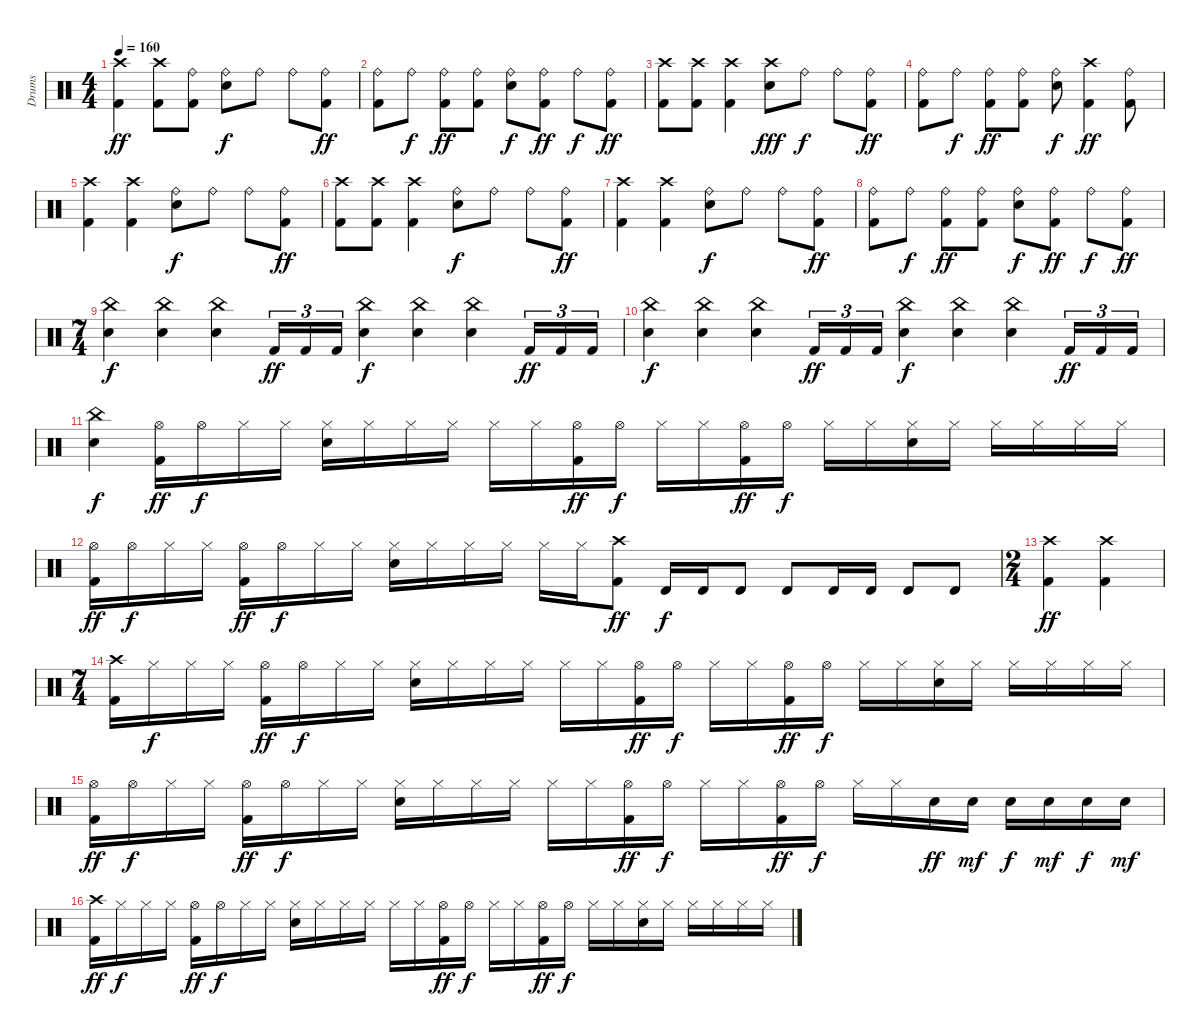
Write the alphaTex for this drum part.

\track ("Drums" "Drums") {instrument percussion}
\staff {score}
\articulation defaults
\ts (4 4)
\tempo 160
\clef neutral
\ks c
("Crash high (hit)" "Kick (hit) 2").4{dy ff} ("Crash high (hit)" "Kick (hit) 2").8 ("Ride (bell)" "Kick (hit) 2").8 ("Ride (bell)" "Snare (hit) 2").8{dy f} "Ride (bell)".8 "Ride (bell)".8 ("Ride (bell)" "Kick (hit) 2").8{dy ff} |
("Ride (bell)" "Kick (hit) 2").8 "Ride (bell)".8{dy f} ("Ride (bell)" "Kick (hit) 2").8{dy ff} ("Ride (bell)" "Kick (hit) 2").8 ("Ride (bell)" "Snare (hit) 2").8{dy f} ("Ride (bell)" "Kick (hit) 2").8{dy ff} "Ride (bell)".8{dy f} ("Ride (bell)" "Kick (hit) 2").8{dy ff} |
("Crash high (hit)" "Kick (hit) 2").8 ("Crash high (hit)" "Kick (hit) 2").8 ("Crash high (hit)" "Kick (hit) 2").4 ("Crash high (hit)" "Snare (hit) 2").8{dy fff} "Ride (bell)".8{dy f} "Ride (bell)".8 ("Ride (bell)" "Kick (hit) 2").8{dy ff} |
("Ride (bell)" "Kick (hit) 2").8 "Ride (bell)".8{dy f} ("Ride (bell)" "Kick (hit) 2").8{dy ff} ("Ride (bell)" "Kick (hit) 2").8 ("Ride (bell)" "Snare (hit) 2").8{dy f} ("Crash high (hit)" "Kick (hit) 2").4{dy ff} ("Ride (bell)" "Kick (hit) 2").8 |
("Crash high (hit)" "Kick (hit) 2").4 ("Crash high (hit)" "Kick (hit) 2").4 ("Ride (bell)" "Snare (hit) 2").8{dy f} "Ride (bell)".8 "Ride (bell)".8 ("Ride (bell)" "Kick (hit) 2").8{dy ff} |
("Crash high (hit)" "Kick (hit) 2").8 ("Crash high (hit)" "Kick (hit) 2").8 ("Crash high (hit)" "Kick (hit) 2").4 ("Ride (bell)" "Snare (hit) 2").8{dy f} "Ride (bell)".8 "Ride (bell)".8 ("Ride (bell)" "Kick (hit) 2").8{dy ff} |
("Crash high (hit)" "Kick (hit) 2").4 ("Crash high (hit)" "Kick (hit) 2").4 ("Ride (bell)" "Snare (hit) 2").8{dy f} "Ride (bell)".8 "Ride (bell)".8 ("Ride (bell)" "Kick (hit) 2").8{dy ff} |
("Ride (bell)" "Kick (hit) 2").8 "Ride (bell)".8{dy f} ("Ride (bell)" "Kick (hit) 2").8{dy ff} ("Ride (bell)" "Kick (hit) 2").8 ("Ride (bell)" "Snare (hit) 2").8{dy f} ("Ride (bell)" "Kick (hit) 2").8{dy ff} "Ride (bell)".8{dy f} ("Ride (bell)" "Kick (hit) 2").8{dy ff} |
\ts (7 4)
("China (hit)" "Snare (hit) 2").4{dy f} ("China (hit)" "Snare (hit) 2").4 ("China (hit)" "Snare (hit) 2").4 "Kick (hit) 2".16{tu (3 2) dy ff} "Kick (hit) 2".16{tu (3 2)} "Kick (hit) 2".16{tu (3 2)} ("China (hit)" "Snare (hit) 2").4{dy f} ("China (hit)" "Snare (hit) 2").4 ("China (hit)" "Snare (hit) 2").4 "Kick (hit) 2".16{tu (3 2) dy ff} "Kick (hit) 2".16{tu (3 2)} "Kick (hit) 2".16{tu (3 2)} |
("China (hit)" "Snare (hit) 2").4{dy f} ("China (hit)" "Snare (hit) 2").4 ("China (hit)" "Snare (hit) 2").4 "Kick (hit) 2".16{tu (3 2) dy ff} "Kick (hit) 2".16{tu (3 2)} "Kick (hit) 2".16{tu (3 2)} ("China (hit)" "Snare (hit) 2").4{dy f} ("China (hit)" "Snare (hit) 2").4 ("China (hit)" "Snare (hit) 2").4 "Kick (hit) 2".16{tu (3 2) dy ff} "Kick (hit) 2".16{tu (3 2)} "Kick (hit) 2".16{tu (3 2)} |
("China (hit)" "Snare (hit) 2").4{dy f} ("Hi-Hat (open)" "Kick (hit) 2").16{dy ff} "Hi-Hat (open)".16{dy f} "Hi-Hat (closed)".16 "Hi-Hat (closed)".16 ("Hi-Hat (closed)" "Snare (hit) 2").16 "Hi-Hat (closed)".16 "Hi-Hat (closed)".16 "Hi-Hat (closed)".16 "Hi-Hat (closed)".16 "Hi-Hat (closed)".16 ("Hi-Hat (open)" "Kick (hit) 2").16{dy ff} "Hi-Hat (open)".16{dy f} "Hi-Hat (closed)".16 "Hi-Hat (closed)".16 ("Hi-Hat (open)" "Kick (hit) 2").16{dy ff} "Hi-Hat (open)".16{dy f} "Hi-Hat (closed)".16 "Hi-Hat (closed)".16 ("Hi-Hat (closed)" "Snare (hit) 2").16 "Hi-Hat (closed)".16 "Hi-Hat (closed)".16 "Hi-Hat (closed)".16 "Hi-Hat (closed)".16 "Hi-Hat (closed)".16 |
("Hi-Hat (open)" "Kick (hit) 2").16{dy ff} "Hi-Hat (open)".16{dy f} "Hi-Hat (closed)".16 "Hi-Hat (closed)".16 ("Hi-Hat (open)" "Kick (hit) 2").16{dy ff} "Hi-Hat (open)".16{dy f} "Hi-Hat (closed)".16 "Hi-Hat (closed)".16 ("Hi-Hat (closed)" "Snare (hit) 2").16 "Hi-Hat (closed)".16 "Hi-Hat (closed)".16 "Hi-Hat (closed)".16 "Hi-Hat (closed)".16 "Hi-Hat (closed)".16 ("Crash high (hit)" "Kick (hit) 2").8{dy ff} "Timbale high (hit)".16{dy f} "Timbale high (hit)".16 "Timbale high (hit)".8 "Timbale high (hit)".8 "Timbale high (hit)".16 "Timbale high (hit)".16 "Timbale high (hit)".8 "Timbale high (hit)".8 |
\ts (2 4)
("Crash high (hit)" "Kick (hit) 2").4{dy ff} ("Crash high (hit)" "Kick (hit) 2").4 |
\ts (7 4)
("Crash high (hit)" "Kick (hit) 2").16 "Hi-Hat (closed)".16{dy f} "Hi-Hat (closed)".16 "Hi-Hat (closed)".16 ("Hi-Hat (open)" "Kick (hit) 2").16{dy ff} "Hi-Hat (open)".16{dy f} "Hi-Hat (closed)".16 "Hi-Hat (closed)".16 ("Hi-Hat (closed)" "Snare (hit) 2").16 "Hi-Hat (closed)".16 "Hi-Hat (closed)".16 "Hi-Hat (closed)".16 "Hi-Hat (closed)".16 "Hi-Hat (closed)".16 ("Hi-Hat (open)" "Kick (hit) 2").16{dy ff} "Hi-Hat (open)".16{dy f} "Hi-Hat (closed)".16 "Hi-Hat (closed)".16 ("Hi-Hat (open)" "Kick (hit) 2").16{dy ff} "Hi-Hat (open)".16{dy f} "Hi-Hat (closed)".16 "Hi-Hat (closed)".16 ("Hi-Hat (closed)" "Snare (hit) 2").16 "Hi-Hat (closed)".16 "Hi-Hat (closed)".16 "Hi-Hat (closed)".16 "Hi-Hat (closed)".16 "Hi-Hat (closed)".16 |
("Hi-Hat (open)" "Kick (hit) 2").16{dy ff} "Hi-Hat (open)".16{dy f} "Hi-Hat (closed)".16 "Hi-Hat (closed)".16 ("Hi-Hat (open)" "Kick (hit) 2").16{dy ff} "Hi-Hat (open)".16{dy f} "Hi-Hat (closed)".16 "Hi-Hat (closed)".16 ("Hi-Hat (closed)" "Snare (hit) 2").16 "Hi-Hat (closed)".16 "Hi-Hat (closed)".16 "Hi-Hat (closed)".16 "Hi-Hat (closed)".16 "Hi-Hat (closed)".16 ("Hi-Hat (open)" "Kick (hit) 2").16{dy ff} "Hi-Hat (open)".16{dy f} "Hi-Hat (closed)".16 "Hi-Hat (closed)".16 ("Hi-Hat (open)" "Kick (hit) 2").16{dy ff} "Hi-Hat (open)".16{dy f} "Hi-Hat (closed)".16 "Hi-Hat (closed)".16 "Snare (hit) 2".16{dy ff} "Snare (hit) 2".16{dy mf} "Snare (hit) 2".16{dy f} "Snare (hit) 2".16{dy mf} "Snare (hit) 2".16{dy f} "Snare (hit) 2".16{dy mf} |
("Crash high (hit)" "Kick (hit) 2").16{dy ff} "Hi-Hat (closed)".16{dy f} "Hi-Hat (closed)".16 "Hi-Hat (closed)".16 ("Hi-Hat (open)" "Kick (hit) 2").16{dy ff} "Hi-Hat (open)".16{dy f} "Hi-Hat (closed)".16 "Hi-Hat (closed)".16 ("Hi-Hat (closed)" "Snare (hit) 2").16 "Hi-Hat (closed)".16 "Hi-Hat (closed)".16 "Hi-Hat (closed)".16 "Hi-Hat (closed)".16 "Hi-Hat (closed)".16 ("Hi-Hat (open)" "Kick (hit) 2").16{dy ff} "Hi-Hat (open)".16{dy f} "Hi-Hat (closed)".16 "Hi-Hat (closed)".16 ("Hi-Hat (open)" "Kick (hit) 2").16{dy ff} "Hi-Hat (open)".16{dy f} "Hi-Hat (closed)".16 "Hi-Hat (closed)".16 ("Hi-Hat (closed)" "Snare (hit) 2").16 "Hi-Hat (closed)".16 "Hi-Hat (closed)".16 "Hi-Hat (closed)".16 "Hi-Hat (closed)".16 "Hi-Hat (closed)".16
